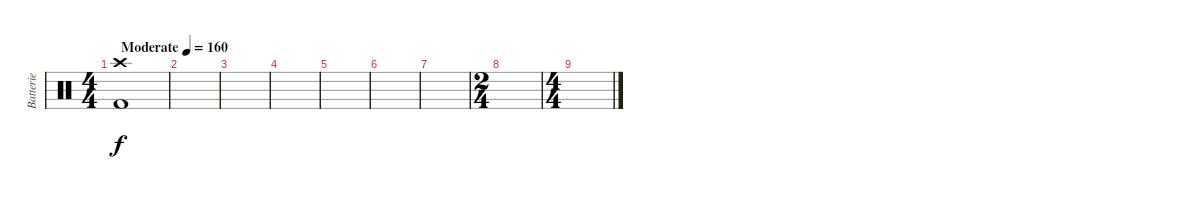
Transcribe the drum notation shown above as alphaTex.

\track ("Batterie" "Batterie") {instrument percussion}
\staff {score}
\articulation defaults
\ts (4 4)
\tempo (160 "Moderate")
\clef neutral
\ks c
("Crash high (hit)" "Kick (hit) 2").1{dy f} |
|
|
|
|
|
|
\ts (2 4)
|
\ts (4 4)
